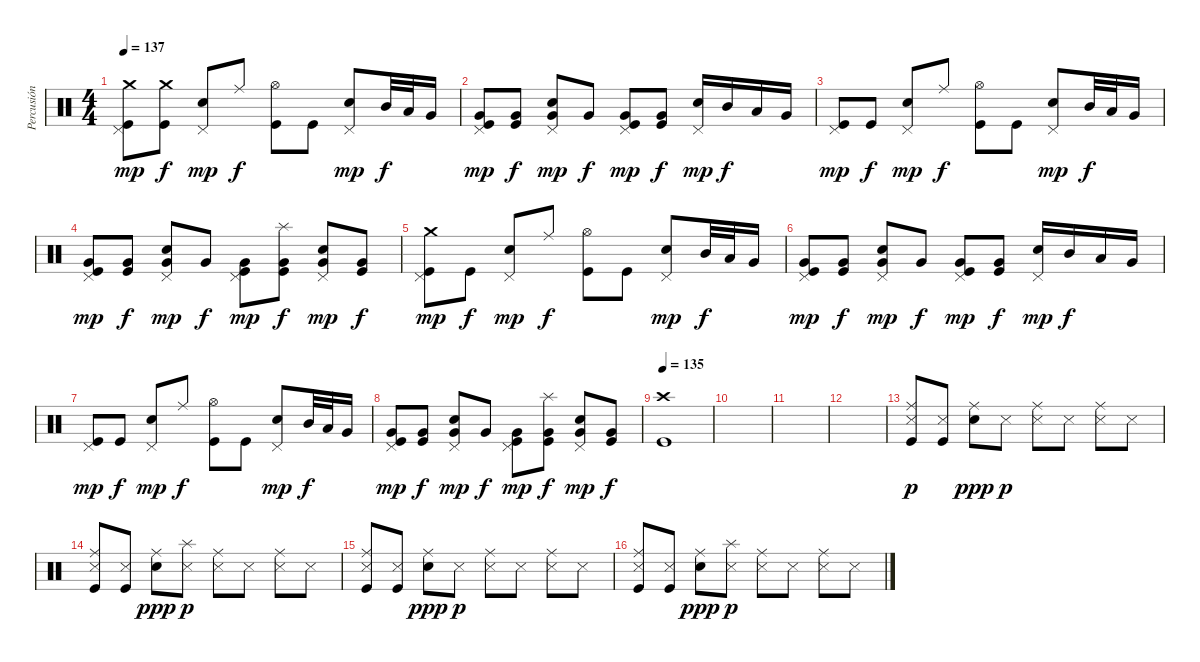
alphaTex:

\track ("Percusión" "Percusión") {instrument percussion}
\staff {score}
\articulation defaults
\ts (4 4)
\tempo 137
\clef neutral
\ks c
("Crash medium (hit)" "Pedal Hi-Hat (hit)" "Kick (hit)").8{dy mp} ("Crash medium (hit)" "Kick (hit)").8{dy f} ("Pedal Hi-Hat (hit)" "Snare (hit) 2").8{dy mp} "Ride (middle)".8{dy f} ("Hi-Hat (open)" "Kick (hit)").8 "Kick (hit)".8 ("Pedal Hi-Hat (hit)" "Snare (hit) 2").8{dy mp} "Mid Tom (hit)".32{dy f} "Low Tom (hit)".32 "Very Low Tom (hit)".16 |
("Pedal Hi-Hat (hit)" "Very Low Tom (hit)" "Kick (hit)").8{dy mp} ("Very Low Tom (hit)" "Kick (hit)").8{dy f} ("Pedal Hi-Hat (hit)" "Very Low Tom (hit)" "Snare (hit) 2").8{dy mp} "Very Low Tom (hit)".8{dy f} ("Pedal Hi-Hat (hit)" "Very Low Tom (hit)" "Kick (hit)").8{dy mp} ("Very Low Tom (hit)" "Kick (hit)").8{dy f} ("Pedal Hi-Hat (hit)" "Snare (hit) 2").16{dy mp} "Mid Tom (hit)".16{dy f} "Low Tom (hit)".16 "Very Low Tom (hit)".16 |
("Pedal Hi-Hat (hit)" "Kick (hit)").8{dy mp} "Kick (hit)".8{dy f} ("Pedal Hi-Hat (hit)" "Snare (hit) 2").8{dy mp} "Ride (middle)".8{dy f} ("Hi-Hat (open)" "Kick (hit)").8 "Kick (hit)".8 ("Pedal Hi-Hat (hit)" "Snare (hit) 2").8{dy mp} "Mid Tom (hit)".32{dy f} "Low Tom (hit)".32 "Very Low Tom (hit)".16 |
("Pedal Hi-Hat (hit)" "Very Low Tom (hit)" "Kick (hit)").8{dy mp} ("Very Low Tom (hit)" "Kick (hit)").8{dy f} ("Pedal Hi-Hat (hit)" "Very Low Tom (hit)" "Snare (hit) 2").8{dy mp} "Very Low Tom (hit)".8{dy f} ("Pedal Hi-Hat (hit)" "Very Low Tom (hit)" "Kick (hit)").8{dy mp} ("Splash (hit)" "Very Low Tom (hit)" "Kick (hit)").8{dy f} ("Pedal Hi-Hat (hit)" "Very Low Tom (hit)" "Snare (hit) 2").8{dy mp} ("Very Low Tom (hit)" "Kick (hit)").8{dy f} |
("Crash medium (hit)" "Pedal Hi-Hat (hit)" "Kick (hit)").8{dy mp} "Kick (hit)".8{dy f} ("Pedal Hi-Hat (hit)" "Snare (hit) 2").8{dy mp} "Ride (middle)".8{dy f} ("Hi-Hat (open)" "Kick (hit)").8 "Kick (hit)".8 ("Pedal Hi-Hat (hit)" "Snare (hit) 2").8{dy mp} "Mid Tom (hit)".32{dy f} "Low Tom (hit)".32 "Very Low Tom (hit)".16 |
("Pedal Hi-Hat (hit)" "Very Low Tom (hit)" "Kick (hit)").8{dy mp} ("Very Low Tom (hit)" "Kick (hit)").8{dy f} ("Pedal Hi-Hat (hit)" "Very Low Tom (hit)" "Snare (hit) 2").8{dy mp} "Very Low Tom (hit)".8{dy f} ("Pedal Hi-Hat (hit)" "Very Low Tom (hit)" "Kick (hit)").8{dy mp} ("Very Low Tom (hit)" "Kick (hit)").8{dy f} ("Pedal Hi-Hat (hit)" "Snare (hit) 2").16{dy mp} "Mid Tom (hit)".16{dy f} "Low Tom (hit)".16 "Very Low Tom (hit)".16 |
("Pedal Hi-Hat (hit)" "Kick (hit)").8{dy mp} "Kick (hit)".8{dy f} ("Pedal Hi-Hat (hit)" "Snare (hit) 2").8{dy mp} "Ride (middle)".8{dy f} ("Hi-Hat (open)" "Kick (hit)").8 "Kick (hit)".8 ("Pedal Hi-Hat (hit)" "Snare (hit) 2").8{dy mp} "Mid Tom (hit)".32{dy f} "Low Tom (hit)".32 "Very Low Tom (hit)".16 |
("Pedal Hi-Hat (hit)" "Very Low Tom (hit)" "Kick (hit)").8{dy mp} ("Very Low Tom (hit)" "Kick (hit)").8{dy f} ("Pedal Hi-Hat (hit)" "Very Low Tom (hit)" "Snare (hit) 2").8{dy mp} "Very Low Tom (hit)".8{dy f} ("Pedal Hi-Hat (hit)" "Very Low Tom (hit)" "Kick (hit)").8{dy mp} ("Splash (hit)" "Very Low Tom (hit)" "Kick (hit)").8{dy f} ("Pedal Hi-Hat (hit)" "Very Low Tom (hit)" "Snare (hit) 2").8{dy mp} ("Very Low Tom (hit)" "Kick (hit)").8{dy f} |
\tempo 135
("Crash high (hit)" "Kick (hit)").1 |
|
|
|
("Ride (middle)" "Snare (side stick) 3" "Kick (hit)").8{dy p} ("Snare (side stick) 3" "Kick (hit)").8 ("Ride (middle)" "Snare (hit) 2").8{dy ppp} "Snare (side stick) 3".8{dy p} ("Ride (middle)" "Snare (side stick) 3").8 "Snare (side stick) 3".8 ("Ride (middle)" "Snare (side stick) 3").8 "Snare (side stick) 3".8 |
("Ride (middle)" "Snare (side stick) 3" "Kick (hit)").8 ("Snare (side stick) 3" "Kick (hit)").8 ("Ride (middle)" "Snare (hit) 2").8{dy ppp} ("Splash (hit)" "Snare (side stick) 3").8{dy p} ("Ride (middle)" "Snare (side stick) 3").8 "Snare (side stick) 3".8 ("Ride (middle)" "Snare (side stick) 3").8 "Snare (side stick) 3".8 |
("Ride (middle)" "Snare (side stick) 3" "Kick (hit)").8 ("Snare (side stick) 3" "Kick (hit)").8 ("Ride (middle)" "Snare (hit) 2").8{dy ppp} "Snare (side stick) 3".8{dy p} ("Ride (middle)" "Snare (side stick) 3").8 "Snare (side stick) 3".8 ("Ride (middle)" "Snare (side stick) 3").8 "Snare (side stick) 3".8 |
("Ride (middle)" "Snare (side stick) 3" "Kick (hit)").8 ("Snare (side stick) 3" "Kick (hit)").8 ("Ride (middle)" "Snare (hit) 2").8{dy ppp} ("Splash (hit)" "Snare (side stick) 3").8{dy p} ("Ride (middle)" "Snare (side stick) 3").8 "Snare (side stick) 3".8 ("Ride (middle)" "Snare (side stick) 3").8 "Snare (side stick) 3".8
